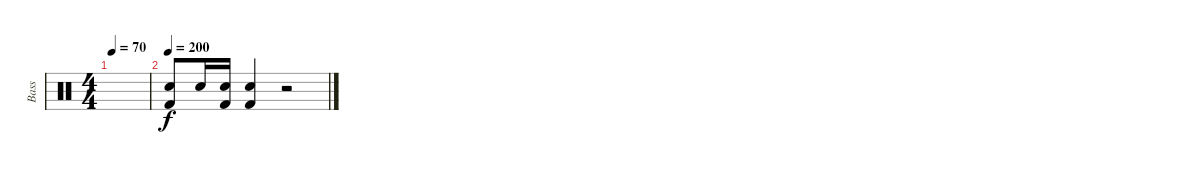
\track ("Bass" "Bass") {instrument percussion}
\staff {score}
\articulation defaults
\ts (4 4)
\tempo 70
\clef neutral
\ks c
|
\tempo 200
("Snare (hit) 2" "Kick (hit) 2").8 "Snare (hit) 2".16 ("Snare (hit) 2" "Kick (hit) 2").16 ("Snare (hit) 2" "Kick (hit) 2").4 r.2
